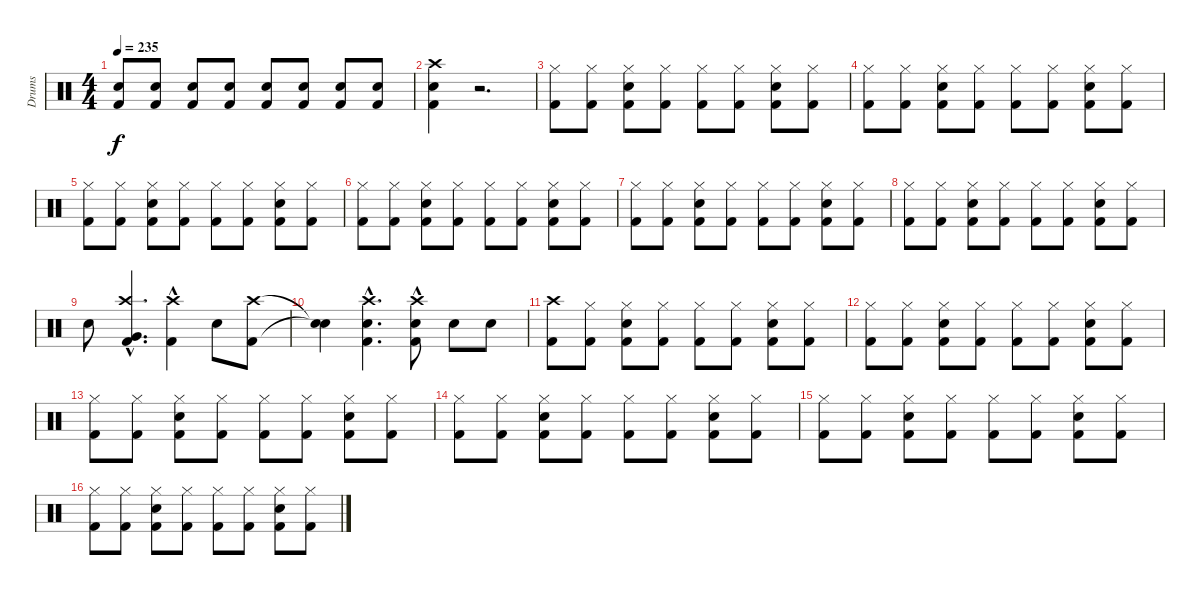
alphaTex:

\track ("Drums" "Drums") {instrument percussion}
\staff {score}
\articulation defaults
\ts (4 4)
\tempo 235
\clef neutral
\ks c
("Snare (hit) 2" "Kick (hit) 2").8{dy f} ("Snare (hit) 2" "Kick (hit) 2").8 ("Snare (hit) 2" "Kick (hit) 2").8 ("Snare (hit) 2" "Kick (hit) 2").8 ("Snare (hit) 2" "Kick (hit) 2").8 ("Snare (hit) 2" "Kick (hit) 2").8 ("Snare (hit) 2" "Kick (hit) 2").8 ("Snare (hit) 2" "Kick (hit) 2").8 |
("Kick (hit) 2" "Snare (hit) 2" "Crash high (hit)").4 r.2{d} |
("Kick (hit) 2" "Hi-Hat (closed)").8 ("Kick (hit) 2" "Hi-Hat (closed)").8 ("Kick (hit) 2" "Snare (hit) 2" "Hi-Hat (closed)").8 ("Kick (hit) 2" "Hi-Hat (closed)").8 ("Kick (hit) 2" "Hi-Hat (closed)").8 ("Kick (hit) 2" "Hi-Hat (closed)").8 ("Kick (hit) 2" "Hi-Hat (closed)" "Snare (hit) 2").8 ("Kick (hit) 2" "Hi-Hat (closed)").8 |
("Kick (hit) 2" "Hi-Hat (closed)").8 ("Kick (hit) 2" "Hi-Hat (closed)").8 ("Kick (hit) 2" "Snare (hit) 2" "Hi-Hat (closed)").8 ("Kick (hit) 2" "Hi-Hat (closed)").8 ("Kick (hit) 2" "Hi-Hat (closed)").8 ("Kick (hit) 2" "Hi-Hat (closed)").8 ("Kick (hit) 2" "Hi-Hat (closed)" "Snare (hit) 2").8 ("Kick (hit) 2" "Hi-Hat (closed)").8 |
("Kick (hit) 2" "Hi-Hat (closed)").8 ("Kick (hit) 2" "Hi-Hat (closed)").8 ("Kick (hit) 2" "Snare (hit) 2" "Hi-Hat (closed)").8 ("Kick (hit) 2" "Hi-Hat (closed)").8 ("Kick (hit) 2" "Hi-Hat (closed)").8 ("Kick (hit) 2" "Hi-Hat (closed)").8 ("Kick (hit) 2" "Hi-Hat (closed)" "Snare (hit) 2").8 ("Kick (hit) 2" "Hi-Hat (closed)").8 |
("Kick (hit) 2" "Hi-Hat (closed)").8 ("Kick (hit) 2" "Hi-Hat (closed)").8 ("Kick (hit) 2" "Snare (hit) 2" "Hi-Hat (closed)").8 ("Kick (hit) 2" "Hi-Hat (closed)").8 ("Kick (hit) 2" "Hi-Hat (closed)").8 ("Kick (hit) 2" "Hi-Hat (closed)").8 ("Kick (hit) 2" "Hi-Hat (closed)" "Snare (hit) 2").8 ("Kick (hit) 2" "Hi-Hat (closed)").8 |
("Kick (hit) 2" "Hi-Hat (closed)").8 ("Kick (hit) 2" "Hi-Hat (closed)").8 ("Kick (hit) 2" "Snare (hit) 2" "Hi-Hat (closed)").8 ("Kick (hit) 2" "Hi-Hat (closed)").8 ("Kick (hit) 2" "Hi-Hat (closed)").8 ("Kick (hit) 2" "Hi-Hat (closed)").8 ("Kick (hit) 2" "Hi-Hat (closed)" "Snare (hit) 2").8 ("Kick (hit) 2" "Hi-Hat (closed)").8 |
("Kick (hit) 2" "Hi-Hat (closed)").8 ("Kick (hit) 2" "Hi-Hat (closed)").8 ("Kick (hit) 2" "Snare (hit) 2" "Hi-Hat (closed)").8 ("Kick (hit) 2" "Hi-Hat (closed)").8 ("Kick (hit) 2" "Hi-Hat (closed)").8 ("Kick (hit) 2" "Hi-Hat (closed)").8 ("Kick (hit) 2" "Hi-Hat (closed)" "Snare (hit) 2").8 ("Kick (hit) 2" "Hi-Hat (closed)").8 |
"Snare (hit) 2".8 ("Kick (hit) 2"{hac} "Crash high (hit)"{hac} "Very Low Tom (hit)").4{d} ("Kick (hit) 2"{hac} "Crash high (hit)"{hac}).4 "Snare (hit) 2".8 ("Kick (hit) 2" "Crash high (hit)").8 |
("Snare (hit)"{t} "Snare (hit)"{t}).4 ("Kick (hit) 2"{hac} "Crash high (hit)"{hac} "Snare (hit) 2").4{d} ("Kick (hit) 2"{hac} "Crash high (hit)"{hac} "Snare (hit) 2").8 "Snare (hit) 2".8 "Snare (hit) 2".8 |
("Kick (hit) 2" "Crash high (hit)").8 ("Kick (hit) 2" "Hi-Hat (closed)").8 ("Kick (hit) 2" "Snare (hit) 2" "Hi-Hat (closed)").8 ("Kick (hit) 2" "Hi-Hat (closed)").8 ("Kick (hit) 2" "Hi-Hat (closed)").8 ("Kick (hit) 2" "Hi-Hat (closed)").8 ("Kick (hit) 2" "Hi-Hat (closed)" "Snare (hit) 2").8 ("Kick (hit) 2" "Hi-Hat (closed)").8 |
("Kick (hit) 2" "Hi-Hat (closed)").8 ("Kick (hit) 2" "Hi-Hat (closed)").8 ("Kick (hit) 2" "Snare (hit) 2" "Hi-Hat (closed)").8 ("Kick (hit) 2" "Hi-Hat (closed)").8 ("Kick (hit) 2" "Hi-Hat (closed)").8 ("Kick (hit) 2" "Hi-Hat (closed)").8 ("Kick (hit) 2" "Hi-Hat (closed)" "Snare (hit) 2").8 ("Kick (hit) 2" "Hi-Hat (closed)").8 |
("Kick (hit) 2" "Hi-Hat (closed)").8 ("Kick (hit) 2" "Hi-Hat (closed)").8 ("Kick (hit) 2" "Snare (hit) 2" "Hi-Hat (closed)").8 ("Kick (hit) 2" "Hi-Hat (closed)").8 ("Kick (hit) 2" "Hi-Hat (closed)").8 ("Kick (hit) 2" "Hi-Hat (closed)").8 ("Kick (hit) 2" "Hi-Hat (closed)" "Snare (hit) 2").8 ("Kick (hit) 2" "Hi-Hat (closed)").8 |
("Kick (hit) 2" "Hi-Hat (closed)").8 ("Kick (hit) 2" "Hi-Hat (closed)").8 ("Kick (hit) 2" "Snare (hit) 2" "Hi-Hat (closed)").8 ("Kick (hit) 2" "Hi-Hat (closed)").8 ("Kick (hit) 2" "Hi-Hat (closed)").8 ("Kick (hit) 2" "Hi-Hat (closed)").8 ("Kick (hit) 2" "Hi-Hat (closed)" "Snare (hit) 2").8 ("Kick (hit) 2" "Hi-Hat (closed)").8 |
("Kick (hit) 2" "Hi-Hat (closed)").8 ("Kick (hit) 2" "Hi-Hat (closed)").8 ("Kick (hit) 2" "Snare (hit) 2" "Hi-Hat (closed)").8 ("Kick (hit) 2" "Hi-Hat (closed)").8 ("Kick (hit) 2" "Hi-Hat (closed)").8 ("Kick (hit) 2" "Hi-Hat (closed)").8 ("Kick (hit) 2" "Hi-Hat (closed)" "Snare (hit) 2").8 ("Kick (hit) 2" "Hi-Hat (closed)").8 |
("Kick (hit) 2" "Hi-Hat (closed)").8 ("Kick (hit) 2" "Hi-Hat (closed)").8 ("Kick (hit) 2" "Snare (hit) 2" "Hi-Hat (closed)").8 ("Kick (hit) 2" "Hi-Hat (closed)").8 ("Kick (hit) 2" "Hi-Hat (closed)").8 ("Kick (hit) 2" "Hi-Hat (closed)").8 ("Kick (hit) 2" "Hi-Hat (closed)" "Snare (hit) 2").8 ("Kick (hit) 2" "Hi-Hat (closed)").8
